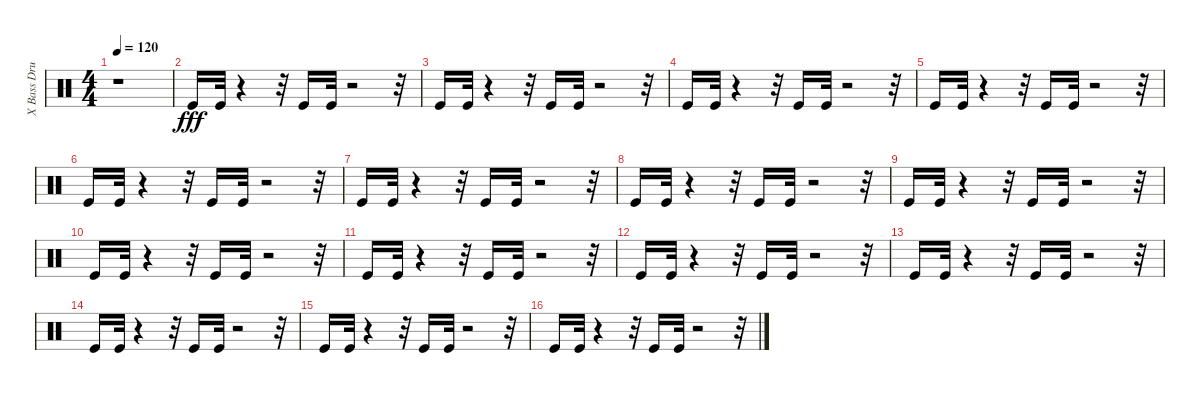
\track ("X Bass Drum         " "X Bass Dru") {instrument percussion}
\staff {score}
\articulation defaults
\ts (4 4)
\tempo 120
\clef neutral
\ks c
r.1{dy fff} |
"Kick (hit)".16 "Kick (hit)".32 r.4 r.32 "Kick (hit)".16 "Kick (hit)".32 r.2 r.32 |
"Kick (hit)".16 "Kick (hit)".32 r.4 r.32 "Kick (hit)".16 "Kick (hit)".32 r.2 r.32 |
"Kick (hit)".16 "Kick (hit)".32 r.4 r.32 "Kick (hit)".16 "Kick (hit)".32 r.2 r.32 |
"Kick (hit)".16 "Kick (hit)".32 r.4 r.32 "Kick (hit)".16 "Kick (hit)".32 r.2 r.32 |
"Kick (hit)".16 "Kick (hit)".32 r.4 r.32 "Kick (hit)".16 "Kick (hit)".32 r.2 r.32 |
"Kick (hit)".16 "Kick (hit)".32 r.4 r.32 "Kick (hit)".16 "Kick (hit)".32 r.2 r.32 |
"Kick (hit)".16 "Kick (hit)".32 r.4 r.32 "Kick (hit)".16 "Kick (hit)".32 r.2 r.32 |
"Kick (hit)".16 "Kick (hit)".32 r.4 r.32 "Kick (hit)".16 "Kick (hit)".32 r.2 r.32 |
"Kick (hit)".16 "Kick (hit)".32 r.4 r.32 "Kick (hit)".16 "Kick (hit)".32 r.2 r.32 |
"Kick (hit)".16 "Kick (hit)".32 r.4 r.32 "Kick (hit)".16 "Kick (hit)".32 r.2 r.32 |
"Kick (hit)".16 "Kick (hit)".32 r.4 r.32 "Kick (hit)".16 "Kick (hit)".32 r.2 r.32 |
"Kick (hit)".16 "Kick (hit)".32 r.4 r.32 "Kick (hit)".16 "Kick (hit)".32 r.2 r.32 |
"Kick (hit)".16 "Kick (hit)".32 r.4 r.32 "Kick (hit)".16 "Kick (hit)".32 r.2 r.32 |
"Kick (hit)".16 "Kick (hit)".32 r.4 r.32 "Kick (hit)".16 "Kick (hit)".32 r.2 r.32 |
"Kick (hit)".16 "Kick (hit)".32 r.4 r.32 "Kick (hit)".16 "Kick (hit)".32 r.2 r.32
